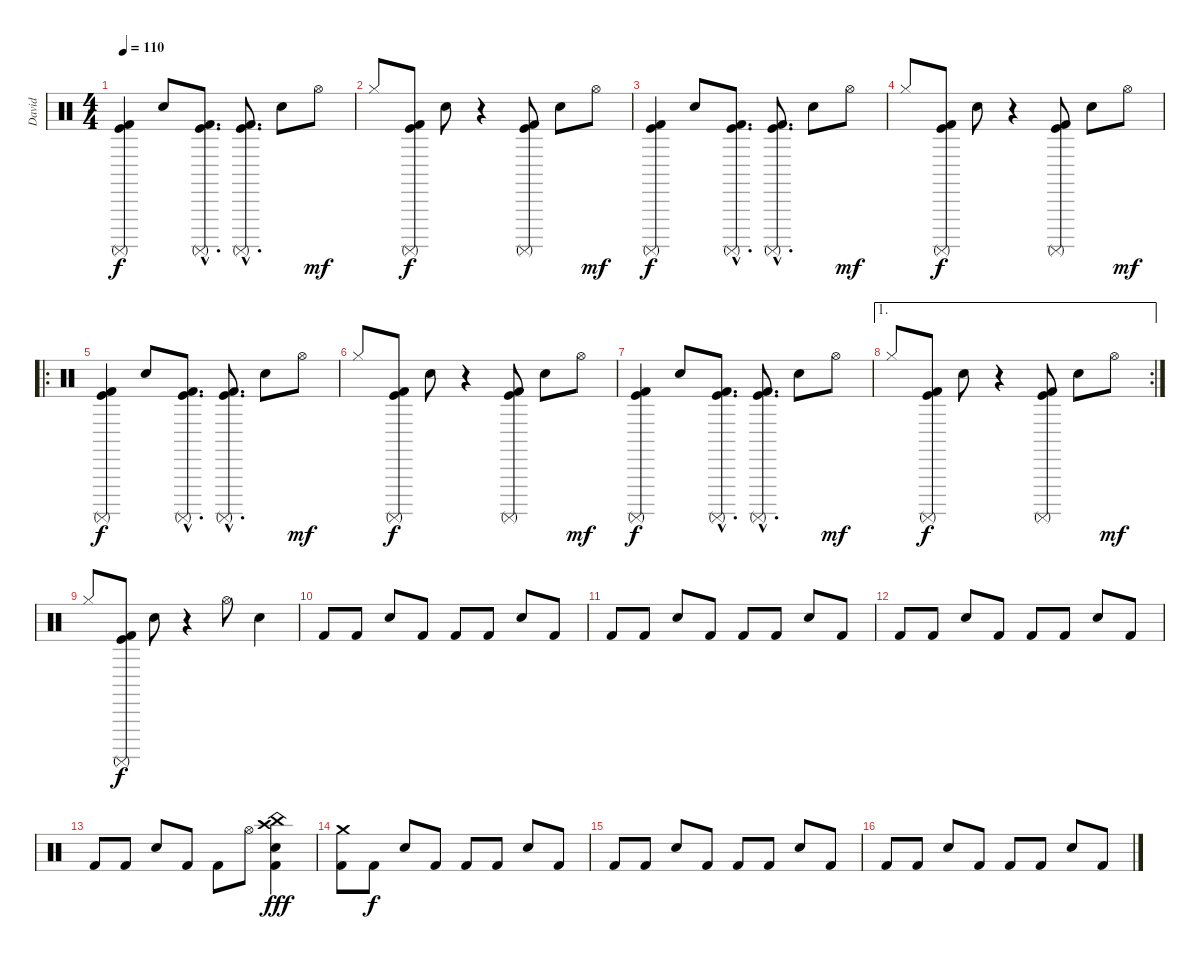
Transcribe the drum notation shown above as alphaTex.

\track ("David" "David") {instrument percussion}
\staff {score}
\articulation defaults
\ts (4 4)
\tempo 110
\clef neutral
\ks c
("Surdo (mute)" "Kick (hit)" "Kick (hit) 2").4{dy f} "Snare (hit) 2".8 ("Surdo (mute)"{hac} "Kick (hit)"{hac} "Kick (hit) 2"{hac}).8{d} ("Surdo (mute)"{hac} "Kick (hit)"{hac} "Kick (hit) 2"{hac}).8{d} "Snare (hit) 2".8 "Hi-Hat (open)".8{dy mf} |
"Hi-Hat (closed)".8 ("Kick (hit)" "Surdo (mute)" "Kick (hit) 2").8{dy f} "Snare (hit) 2".8 r.4 ("Kick (hit)" "Surdo (mute)" "Kick (hit) 2").8 "Snare (hit) 2".8 "Hi-Hat (open)".8{dy mf} |
("Surdo (mute)" "Kick (hit)" "Kick (hit) 2").4{dy f} "Snare (hit) 2".8 ("Surdo (mute)"{hac} "Kick (hit)"{hac} "Kick (hit) 2"{hac}).8{d} ("Surdo (mute)"{hac} "Kick (hit)"{hac} "Kick (hit) 2"{hac}).8{d} "Snare (hit) 2".8 "Hi-Hat (open)".8{dy mf} |
"Hi-Hat (closed)".8 ("Kick (hit)" "Surdo (mute)" "Kick (hit) 2").8{dy f} "Snare (hit) 2".8 r.4 ("Kick (hit)" "Surdo (mute)" "Kick (hit) 2").8 "Snare (hit) 2".8 "Hi-Hat (open)".8{dy mf} |
\ro
("Surdo (mute)" "Kick (hit)" "Kick (hit) 2").4{dy f} "Snare (hit) 2".8 ("Surdo (mute)"{hac} "Kick (hit)"{hac} "Kick (hit) 2"{hac}).8{d} ("Surdo (mute)"{hac} "Kick (hit)"{hac} "Kick (hit) 2"{hac}).8{d} "Snare (hit) 2".8 "Hi-Hat (open)".8{dy mf} |
"Hi-Hat (closed)".8 ("Kick (hit)" "Surdo (mute)" "Kick (hit) 2").8{dy f} "Snare (hit) 2".8 r.4 ("Kick (hit)" "Surdo (mute)" "Kick (hit) 2").8 "Snare (hit) 2".8 "Hi-Hat (open)".8{dy mf} |
("Surdo (mute)" "Kick (hit)" "Kick (hit) 2").4{dy f} "Snare (hit) 2".8 ("Surdo (mute)"{hac} "Kick (hit)"{hac} "Kick (hit) 2"{hac}).8{d} ("Surdo (mute)"{hac} "Kick (hit)"{hac} "Kick (hit) 2"{hac}).8{d} "Snare (hit) 2".8 "Hi-Hat (open)".8{dy mf} |
\ae 1
\rc 2 "Hi-Hat (closed)".8
("Kick (hit)" "Surdo (mute)" "Kick (hit) 2").8{dy f} "Snare (hit) 2".8 r.4 ("Kick (hit)" "Surdo (mute)" "Kick (hit) 2").8 "Snare (hit) 2".8 "Hi-Hat (open)".8{dy mf} |
"Hi-Hat (closed)".8 ("Kick (hit)" "Surdo (mute)" "Kick (hit) 2").8{dy f} "Snare (hit) 2".8 r.4 "Hi-Hat (open)".8 "Snare (hit) 2".4 |
"Kick (hit) 2".8 "Kick (hit) 2".8 "Snare (hit) 2".8 "Kick (hit) 2".8 "Kick (hit) 2".8 "Kick (hit) 2".8 "Snare (hit) 2".8 "Kick (hit) 2".8 |
"Kick (hit) 2".8 "Kick (hit) 2".8 "Snare (hit) 2".8 "Kick (hit) 2".8 "Kick (hit) 2".8 "Kick (hit) 2".8 "Snare (hit) 2".8 "Kick (hit) 2".8 |
"Kick (hit) 2".8 "Kick (hit) 2".8 "Snare (hit) 2".8 "Kick (hit) 2".8 "Kick (hit) 2".8 "Kick (hit) 2".8 "Snare (hit) 2".8 "Kick (hit) 2".8 |
"Kick (hit) 2".8 "Kick (hit) 2".8 "Snare (hit) 2".8 "Kick (hit) 2".8 "Kick (hit) 2".8 "Hi-Hat (open)".8 ("China (hit)" "Snare (hit) 2" "Crash high (hit)" "Kick (hit) 2").4{dy fff} |
("Crash medium (hit)" "Kick (hit) 2").8 "Kick (hit) 2".8{dy f} "Snare (hit) 2".8 "Kick (hit) 2".8 "Kick (hit) 2".8 "Kick (hit) 2".8 "Snare (hit) 2".8 "Kick (hit) 2".8 |
"Kick (hit) 2".8 "Kick (hit) 2".8 "Snare (hit) 2".8 "Kick (hit) 2".8 "Kick (hit) 2".8 "Kick (hit) 2".8 "Snare (hit) 2".8 "Kick (hit) 2".8 |
"Kick (hit) 2".8 "Kick (hit) 2".8 "Snare (hit) 2".8 "Kick (hit) 2".8 "Kick (hit) 2".8 "Kick (hit) 2".8 "Snare (hit) 2".8 "Kick (hit) 2".8
